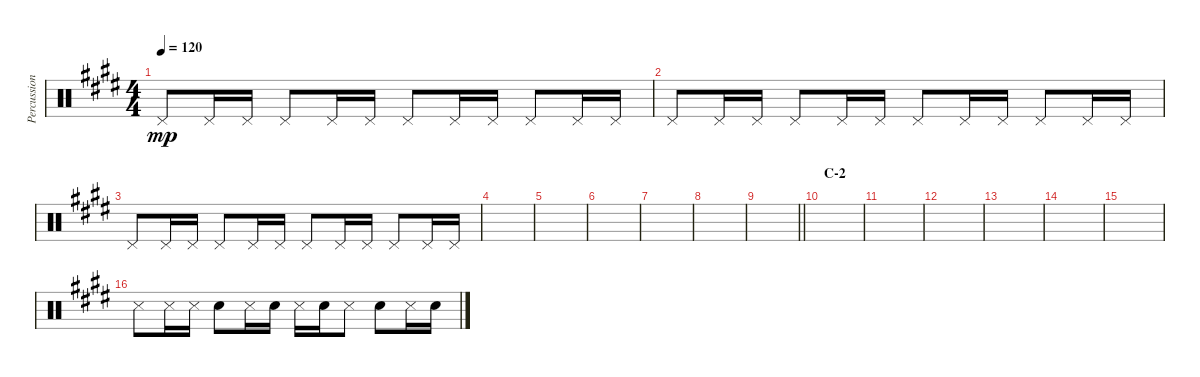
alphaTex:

\track ("Percussion (Tainaka Ritsu)" "Percussion") {instrument percussion}
\staff {score}
\articulation defaults
\ts (4 4)
\tempo 120
\clef neutral
\ks e "Pedal Hi-Hat (hit)".8{dy mp} "Pedal Hi-Hat (hit)".16 "Pedal Hi-Hat (hit)".16 "Pedal Hi-Hat (hit)".8 "Pedal Hi-Hat (hit)".16 "Pedal Hi-Hat (hit)".16 "Pedal Hi-Hat (hit)".8 "Pedal Hi-Hat (hit)".16 "Pedal Hi-Hat (hit)".16 "Pedal Hi-Hat (hit)".8 "Pedal Hi-Hat (hit)".16 "Pedal Hi-Hat (hit)".16
|
"Pedal Hi-Hat (hit)".8 "Pedal Hi-Hat (hit)".16 "Pedal Hi-Hat (hit)".16 "Pedal Hi-Hat (hit)".8 "Pedal Hi-Hat (hit)".16 "Pedal Hi-Hat (hit)".16 "Pedal Hi-Hat (hit)".8 "Pedal Hi-Hat (hit)".16 "Pedal Hi-Hat (hit)".16 "Pedal Hi-Hat (hit)".8 "Pedal Hi-Hat (hit)".16 "Pedal Hi-Hat (hit)".16 |
"Pedal Hi-Hat (hit)".8 "Pedal Hi-Hat (hit)".16 "Pedal Hi-Hat (hit)".16 "Pedal Hi-Hat (hit)".8 "Pedal Hi-Hat (hit)".16 "Pedal Hi-Hat (hit)".16 "Pedal Hi-Hat (hit)".8 "Pedal Hi-Hat (hit)".16 "Pedal Hi-Hat (hit)".16 "Pedal Hi-Hat (hit)".8 "Pedal Hi-Hat (hit)".16 "Pedal Hi-Hat (hit)".16 |
|
|
|
|
|
\barLineRight lightlight
|
\section ("" "C-2")
|
|
|
|
|
|
"Snare (side stick) 3".8 "Snare (side stick) 3".16 "Snare (side stick) 3".16 "Snare (hit) 2".8 "Snare (side stick) 3".16 "Snare (hit) 2".16 "Snare (side stick) 3".16 "Snare (hit) 2".16 "Snare (side stick) 3".8 "Snare (hit) 2".8 "Snare (side stick) 3".16 "Snare (hit) 2".16
